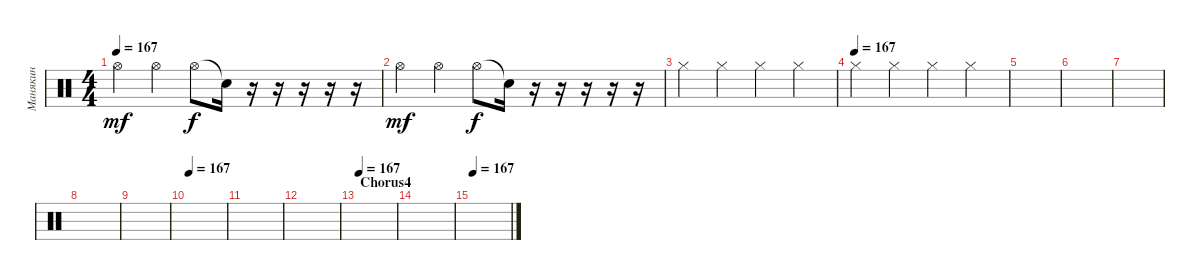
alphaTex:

\track ("Манякин" "Манякин") {instrument percussion}
\staff {score}
\articulation defaults
\ts (4 4)
\tempo 167
\clef neutral
\ks c "Hi-Hat (open)".4{dy mf} "Hi-Hat (open)".4 "Hi-Hat (open)".8{dy f} "Snare (hit)"{t}.16
r.16 r.16 r.16 r.16 r.16 |
"Hi-Hat (open)".4{dy mf} "Hi-Hat (open)".4 "Hi-Hat (open)".8{dy f} "Snare (hit)"{t}.16 r.16 r.16 r.16 r.16 r.16 |
"Hi-Hat (closed)".4 "Hi-Hat (closed)".4 "Hi-Hat (closed)".4 "Hi-Hat (closed)".4 |
\tempo (167)
"Hi-Hat (closed)".4 "Hi-Hat (closed)".4 "Hi-Hat (closed)".4 "Hi-Hat (closed)".4 |
|
|
|
|
|
\tempo 167
|
|
|
\section ("" "Chorus4")
\tempo 167
|
|
\tempo 167
